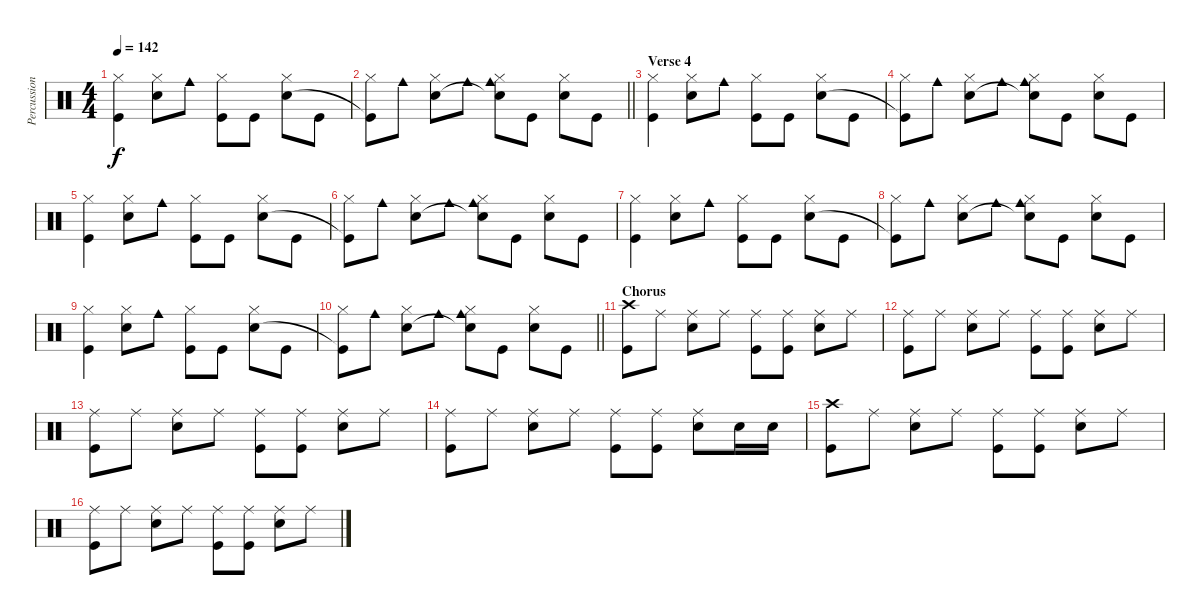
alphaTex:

\track ("Percussion" "Percussion") {instrument percussion}
\staff {score}
\articulation defaults
\ts (4 4)
\tempo 142
\clef neutral
\ks c
("Kick (hit)" "Hi-Hat (closed)").4{dy f} ("Snare (hit) 2" "Hi-Hat (closed)").8 "Cowbell medium (hit)".8 ("Hi-Hat (closed)" "Kick (hit)").8 "Kick (hit)".8 ("Hi-Hat (closed)" "Snare (hit) 2").8 "Kick (hit)".8 |
\barLineRight lightlight
("Hi-Hat (closed)" "Kick (hit)"{t}).8 "Cowbell medium (hit)".8 ("Hi-Hat (closed)" "Snare (hit) 2").8 "Cowbell medium (hit)".8 ("Hi-Hat (closed)" "Snare (hit) 2"{t} "Cowbell medium (hit)").8 "Kick (hit)".8 ("Hi-Hat (closed)" "Snare (hit) 2").8 "Kick (hit)".8 |
\section ("" "Verse 4")
("Kick (hit)" "Hi-Hat (closed)").4 ("Snare (hit) 2" "Hi-Hat (closed)").8 "Cowbell medium (hit)".8 ("Hi-Hat (closed)" "Kick (hit)").8 "Kick (hit)".8 ("Hi-Hat (closed)" "Snare (hit) 2").8 "Kick (hit)".8 |
("Hi-Hat (closed)" "Kick (hit)"{t}).8 "Cowbell medium (hit)".8 ("Hi-Hat (closed)" "Snare (hit) 2").8 "Cowbell medium (hit)".8 ("Hi-Hat (closed)" "Snare (hit) 2"{t} "Cowbell medium (hit)").8 "Kick (hit)".8 ("Hi-Hat (closed)" "Snare (hit) 2").8 "Kick (hit)".8 |
("Kick (hit)" "Hi-Hat (closed)").4 ("Snare (hit) 2" "Hi-Hat (closed)").8 "Cowbell medium (hit)".8 ("Hi-Hat (closed)" "Kick (hit)").8 "Kick (hit)".8 ("Hi-Hat (closed)" "Snare (hit) 2").8 "Kick (hit)".8 |
("Hi-Hat (closed)" "Kick (hit)"{t}).8 "Cowbell medium (hit)".8 ("Hi-Hat (closed)" "Snare (hit) 2").8 "Cowbell medium (hit)".8 ("Hi-Hat (closed)" "Snare (hit) 2"{t} "Cowbell medium (hit)").8 "Kick (hit)".8 ("Hi-Hat (closed)" "Snare (hit) 2").8 "Kick (hit)".8 |
("Kick (hit)" "Hi-Hat (closed)").4 ("Snare (hit) 2" "Hi-Hat (closed)").8 "Cowbell medium (hit)".8 ("Hi-Hat (closed)" "Kick (hit)").8 "Kick (hit)".8 ("Hi-Hat (closed)" "Snare (hit) 2").8 "Kick (hit)".8 |
("Hi-Hat (closed)" "Kick (hit)"{t}).8 "Cowbell medium (hit)".8 ("Hi-Hat (closed)" "Snare (hit) 2").8 "Cowbell medium (hit)".8 ("Hi-Hat (closed)" "Snare (hit) 2"{t} "Cowbell medium (hit)").8 "Kick (hit)".8 ("Hi-Hat (closed)" "Snare (hit) 2").8 "Kick (hit)".8 |
("Kick (hit)" "Hi-Hat (closed)").4 ("Snare (hit) 2" "Hi-Hat (closed)").8 "Cowbell medium (hit)".8 ("Hi-Hat (closed)" "Kick (hit)").8 "Kick (hit)".8 ("Hi-Hat (closed)" "Snare (hit) 2").8 "Kick (hit)".8 |
\barLineRight lightlight
("Hi-Hat (closed)" "Kick (hit)"{t}).8 "Cowbell medium (hit)".8 ("Hi-Hat (closed)" "Snare (hit) 2").8 "Cowbell medium (hit)".8 ("Hi-Hat (closed)" "Snare (hit) 2"{t} "Cowbell medium (hit)").8 "Kick (hit)".8 ("Hi-Hat (closed)" "Snare (hit) 2").8 "Kick (hit)".8 |
\section ("" "Chorus")
("Crash high (hit)" "Kick (hit)").8 "Ride (middle)".8 ("Ride (middle)" "Snare (hit) 2").8 "Ride (middle)".8 ("Ride (middle)" "Kick (hit)").8 ("Ride (middle)" "Kick (hit)").8 ("Ride (middle)" "Snare (hit) 2").8 "Ride (middle)".8 |
("Ride (middle)" "Kick (hit)").8 "Ride (middle)".8 ("Ride (middle)" "Snare (hit) 2").8 "Ride (middle)".8 ("Ride (middle)" "Kick (hit)").8 ("Ride (middle)" "Kick (hit)").8 ("Ride (middle)" "Snare (hit) 2").8 "Ride (middle)".8 |
("Ride (middle)" "Kick (hit)").8 "Ride (middle)".8 ("Ride (middle)" "Snare (hit) 2").8 "Ride (middle)".8 ("Ride (middle)" "Kick (hit)").8 ("Ride (middle)" "Kick (hit)").8 ("Ride (middle)" "Snare (hit) 2").8 "Ride (middle)".8 |
("Ride (middle)" "Kick (hit)").8 "Ride (middle)".8 ("Ride (middle)" "Snare (hit) 2").8 "Ride (middle)".8 ("Ride (middle)" "Kick (hit)").8 ("Ride (middle)" "Kick (hit)").8 ("Ride (middle)" "Snare (hit) 2").8 "Snare (hit) 2".16 "Snare (hit) 2".16 |
("Crash high (hit)" "Kick (hit)").8 "Ride (middle)".8 ("Ride (middle)" "Snare (hit) 2").8 "Ride (middle)".8 ("Ride (middle)" "Kick (hit)").8 ("Ride (middle)" "Kick (hit)").8 ("Ride (middle)" "Snare (hit) 2").8 "Ride (middle)".8 |
("Ride (middle)" "Kick (hit)").8 "Ride (middle)".8 ("Ride (middle)" "Snare (hit) 2").8 "Ride (middle)".8 ("Ride (middle)" "Kick (hit)").8 ("Ride (middle)" "Kick (hit)").8 ("Ride (middle)" "Snare (hit) 2").8 "Ride (middle)".8
